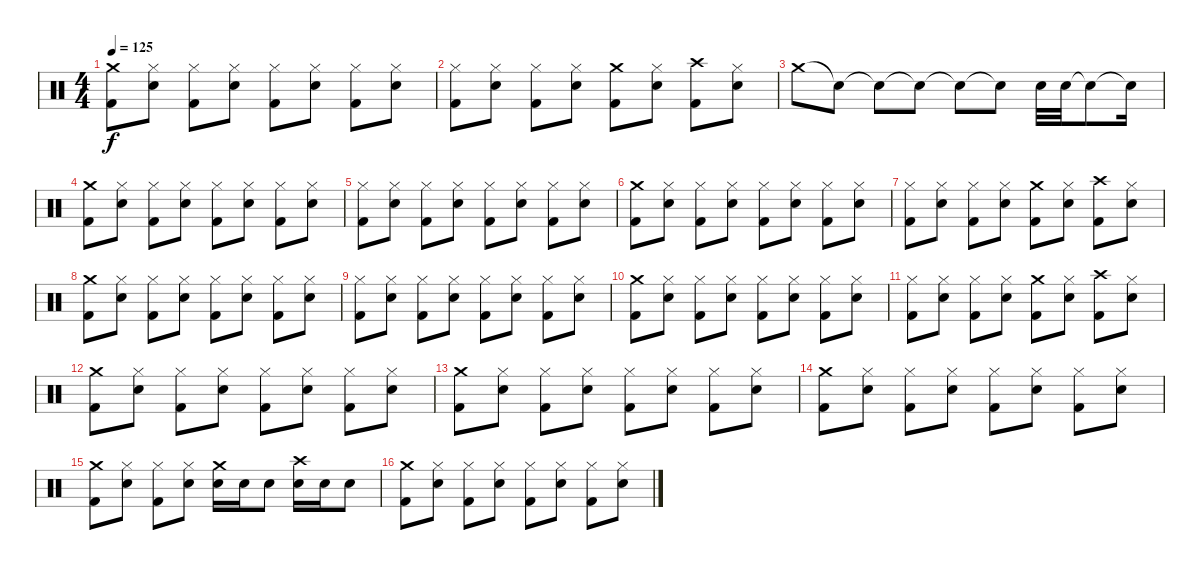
\track (" " " ") {instrument percussion}
\staff {score}
\articulation defaults
\ts (4 4)
\tempo 125
\clef neutral
\ks c
("Crash medium (hit)" "Kick (hit) 2").8{dy f} ("Hi-Hat (closed)" "Snare (hit) 2").8 ("Hi-Hat (closed)" "Kick (hit) 2").8 ("Hi-Hat (closed)" "Snare (hit) 2").8 ("Hi-Hat (closed)" "Kick (hit) 2").8 ("Hi-Hat (closed)" "Snare (hit) 2").8 ("Hi-Hat (closed)" "Kick (hit) 2").8 ("Hi-Hat (closed)" "Snare (hit) 2").8 |
("Hi-Hat (closed)" "Kick (hit) 2").8 ("Hi-Hat (closed)" "Snare (hit) 2").8 ("Hi-Hat (closed)" "Kick (hit) 2").8 ("Hi-Hat (closed)" "Snare (hit) 2").8 ("Crash medium (hit)" "Kick (hit) 2").8 ("Hi-Hat (closed)" "Snare (hit) 2").8 ("Crash high (hit)" "Kick (hit) 2").8 ("Hi-Hat (closed)" "Snare (hit) 2").8 |
"Crash medium (hit)".8 "Snare (hit)"{t}.8 "Snare (hit)"{t}.8 "Snare (hit)"{t}.8 "Snare (hit)"{t}.8 "Snare (hit)"{t}.8 "Snare (hit) 2".32 "Snare (hit) 2".32 "Snare (hit)"{t}.8 "Snare (hit)"{t}.16 |
("Crash medium (hit)" "Kick (hit) 2").8 ("Hi-Hat (closed)" "Snare (hit) 2").8 ("Hi-Hat (closed)" "Kick (hit) 2").8 ("Hi-Hat (closed)" "Snare (hit) 2").8 ("Hi-Hat (closed)" "Kick (hit) 2").8 ("Hi-Hat (closed)" "Snare (hit) 2").8 ("Hi-Hat (closed)" "Kick (hit) 2").8 ("Hi-Hat (closed)" "Snare (hit) 2").8 |
("Hi-Hat (closed)" "Kick (hit) 2").8 ("Hi-Hat (closed)" "Snare (hit) 2").8 ("Hi-Hat (closed)" "Kick (hit) 2").8 ("Hi-Hat (closed)" "Snare (hit) 2").8 ("Hi-Hat (closed)" "Kick (hit) 2").8 ("Hi-Hat (closed)" "Snare (hit) 2").8 ("Hi-Hat (closed)" "Kick (hit) 2").8 ("Hi-Hat (closed)" "Snare (hit) 2").8 |
("Crash medium (hit)" "Kick (hit) 2").8 ("Hi-Hat (closed)" "Snare (hit) 2").8 ("Hi-Hat (closed)" "Kick (hit) 2").8 ("Hi-Hat (closed)" "Snare (hit) 2").8 ("Hi-Hat (closed)" "Kick (hit) 2").8 ("Hi-Hat (closed)" "Snare (hit) 2").8 ("Hi-Hat (closed)" "Kick (hit) 2").8 ("Hi-Hat (closed)" "Snare (hit) 2").8 |
("Hi-Hat (closed)" "Kick (hit) 2").8 ("Hi-Hat (closed)" "Snare (hit) 2").8 ("Hi-Hat (closed)" "Kick (hit) 2").8 ("Hi-Hat (closed)" "Snare (hit) 2").8 ("Crash medium (hit)" "Kick (hit) 2").8 ("Hi-Hat (closed)" "Snare (hit) 2").8 ("Crash high (hit)" "Kick (hit) 2").8 ("Hi-Hat (closed)" "Snare (hit) 2").8 |
("Crash medium (hit)" "Kick (hit) 2").8 ("Hi-Hat (closed)" "Snare (hit) 2").8 ("Hi-Hat (closed)" "Kick (hit) 2").8 ("Hi-Hat (closed)" "Snare (hit) 2").8 ("Hi-Hat (closed)" "Kick (hit) 2").8 ("Hi-Hat (closed)" "Snare (hit) 2").8 ("Hi-Hat (closed)" "Kick (hit) 2").8 ("Hi-Hat (closed)" "Snare (hit) 2").8 |
("Hi-Hat (closed)" "Kick (hit) 2").8 ("Hi-Hat (closed)" "Snare (hit) 2").8 ("Hi-Hat (closed)" "Kick (hit) 2").8 ("Hi-Hat (closed)" "Snare (hit) 2").8 ("Hi-Hat (closed)" "Kick (hit) 2").8 ("Hi-Hat (closed)" "Snare (hit) 2").8 ("Hi-Hat (closed)" "Kick (hit) 2").8 ("Hi-Hat (closed)" "Snare (hit) 2").8 |
("Crash medium (hit)" "Kick (hit) 2").8 ("Hi-Hat (closed)" "Snare (hit) 2").8 ("Hi-Hat (closed)" "Kick (hit) 2").8 ("Hi-Hat (closed)" "Snare (hit) 2").8 ("Hi-Hat (closed)" "Kick (hit) 2").8 ("Hi-Hat (closed)" "Snare (hit) 2").8 ("Hi-Hat (closed)" "Kick (hit) 2").8 ("Hi-Hat (closed)" "Snare (hit) 2").8 |
("Hi-Hat (closed)" "Kick (hit) 2").8 ("Hi-Hat (closed)" "Snare (hit) 2").8 ("Hi-Hat (closed)" "Kick (hit) 2").8 ("Hi-Hat (closed)" "Snare (hit) 2").8 ("Crash medium (hit)" "Kick (hit) 2").8 ("Hi-Hat (closed)" "Snare (hit) 2").8 ("Crash high (hit)" "Kick (hit) 2").8 ("Hi-Hat (closed)" "Snare (hit) 2").8 |
("Crash medium (hit)" "Kick (hit) 2").8 ("Hi-Hat (closed)" "Snare (hit) 2").8 ("Hi-Hat (closed)" "Kick (hit) 2").8 ("Hi-Hat (closed)" "Snare (hit) 2").8 ("Hi-Hat (closed)" "Kick (hit) 2").8 ("Hi-Hat (closed)" "Snare (hit) 2").8 ("Hi-Hat (closed)" "Kick (hit) 2").8 ("Hi-Hat (closed)" "Snare (hit) 2").8 |
("Crash medium (hit)" "Kick (hit) 2").8 ("Hi-Hat (closed)" "Snare (hit) 2").8 ("Hi-Hat (closed)" "Kick (hit) 2").8 ("Hi-Hat (closed)" "Snare (hit) 2").8 ("Hi-Hat (closed)" "Kick (hit) 2").8 ("Hi-Hat (closed)" "Snare (hit) 2").8 ("Hi-Hat (closed)" "Kick (hit) 2").8 ("Hi-Hat (closed)" "Snare (hit) 2").8 |
("Crash medium (hit)" "Kick (hit) 2").8 ("Hi-Hat (closed)" "Snare (hit) 2").8 ("Hi-Hat (closed)" "Kick (hit) 2").8 ("Hi-Hat (closed)" "Snare (hit) 2").8 ("Hi-Hat (closed)" "Kick (hit) 2").8 ("Hi-Hat (closed)" "Snare (hit) 2").8 ("Hi-Hat (closed)" "Kick (hit) 2").8 ("Hi-Hat (closed)" "Snare (hit) 2").8 |
("Crash medium (hit)" "Kick (hit) 2").8 ("Hi-Hat (closed)" "Snare (hit) 2").8 ("Hi-Hat (closed)" "Kick (hit) 2").8 ("Hi-Hat (closed)" "Snare (hit) 2").8 ("Crash medium (hit)" "Snare (hit) 2").16 "Snare (hit) 2".16 "Snare (hit) 2".8 ("Crash high (hit)" "Snare (hit) 2").16 "Snare (hit) 2".16 "Snare (hit) 2".8 |
("Crash medium (hit)" "Kick (hit) 2").8 ("Hi-Hat (closed)" "Snare (hit) 2").8 ("Hi-Hat (closed)" "Kick (hit) 2").8 ("Hi-Hat (closed)" "Snare (hit) 2").8 ("Hi-Hat (closed)" "Kick (hit) 2").8 ("Hi-Hat (closed)" "Snare (hit) 2").8 ("Hi-Hat (closed)" "Kick (hit) 2").8 ("Hi-Hat (closed)" "Snare (hit) 2").8
